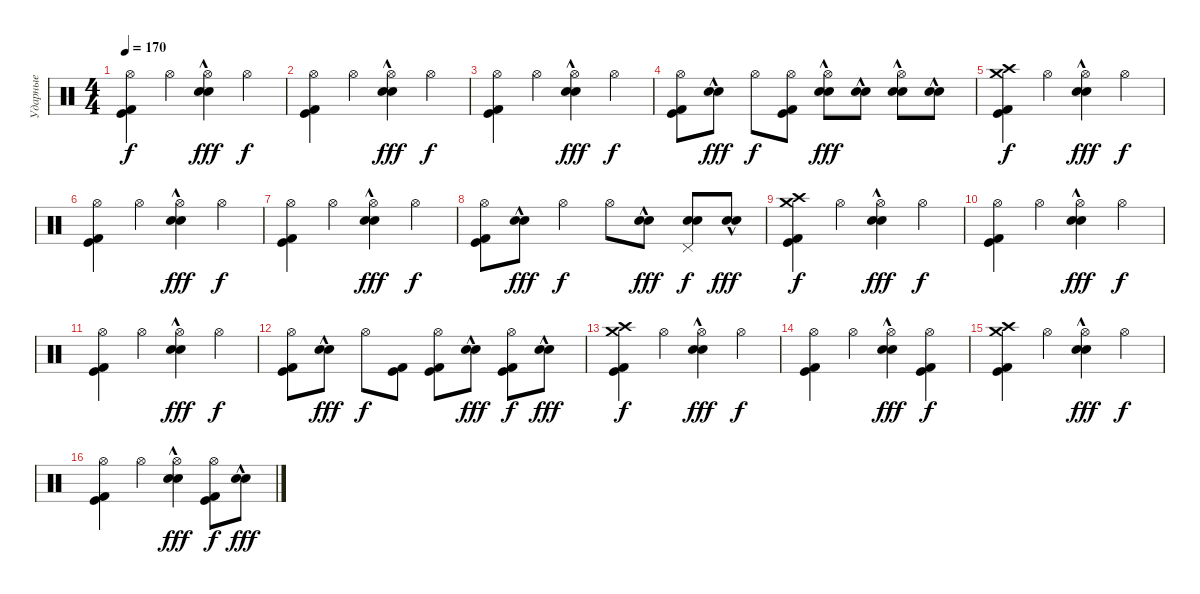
\track ("Ударные" "Ударные") {instrument percussion}
\staff {score}
\articulation defaults
\ts (4 4)
\tempo 170
\clef neutral
\ks c
("Hi-Hat (open)" "Kick (hit)" "Kick (hit) 2").4{dy f} "Hi-Hat (open)".4 ("Hi-Hat (open)" "Snare (hit) 2"{hac} "Electric Snare (hit)"{hac}).4{dy fff} "Hi-Hat (open)".4{dy f} |
("Hi-Hat (open)" "Kick (hit)" "Kick (hit) 2").4 "Hi-Hat (open)".4 ("Hi-Hat (open)" "Snare (hit) 2"{hac} "Electric Snare (hit)"{hac}).4{dy fff} "Hi-Hat (open)".4{dy f} |
("Hi-Hat (open)" "Kick (hit)" "Kick (hit) 2").4 "Hi-Hat (open)".4 ("Hi-Hat (open)" "Snare (hit) 2"{hac} "Electric Snare (hit)"{hac}).4{dy fff} "Hi-Hat (open)".4{dy f} |
("Hi-Hat (open)" "Kick (hit)" "Kick (hit) 2").8 ("Snare (hit) 2"{hac} "Electric Snare (hit)"{hac}).8{dy fff} "Hi-Hat (open)".8{dy f} ("Hi-Hat (open)" "Kick (hit)" "Kick (hit) 2").8 ("Hi-Hat (open)" "Snare (hit) 2"{hac} "Electric Snare (hit)"{hac}).8{dy fff} ("Snare (hit) 2"{hac} "Electric Snare (hit)"{hac}).8 ("Hi-Hat (open)" "Snare (hit) 2"{hac} "Electric Snare (hit)"{hac}).8 ("Snare (hit) 2"{hac} "Electric Snare (hit)"{hac}).8 |
("Crash high (hit)" "Kick (hit)" "Kick (hit) 2" "Crash medium (hit)").4{dy f} "Hi-Hat (open)".4 ("Hi-Hat (open)" "Snare (hit) 2"{hac} "Electric Snare (hit)"{hac}).4{dy fff} "Hi-Hat (open)".4{dy f} |
("Hi-Hat (open)" "Kick (hit)" "Kick (hit) 2").4 "Hi-Hat (open)".4 ("Hi-Hat (open)" "Snare (hit) 2"{hac} "Electric Snare (hit)"{hac}).4{dy fff} "Hi-Hat (open)".4{dy f} |
("Hi-Hat (open)" "Kick (hit)" "Kick (hit) 2").4 "Hi-Hat (open)".4 ("Hi-Hat (open)" "Snare (hit) 2"{hac} "Electric Snare (hit)"{hac}).4{dy fff} "Hi-Hat (open)".4{dy f} |
("Hi-Hat (open)" "Kick (hit)" "Kick (hit) 2").8 ("Snare (hit) 2"{hac} "Electric Snare (hit)"{hac}).8{dy fff} "Hi-Hat (open)".4{dy f} "Hi-Hat (open)".8 ("Snare (hit) 2"{hac} "Electric Snare (hit)"{hac}).8{dy fff} ("Pedal Hi-Hat (hit)" "Snare (hit) 2" "Electric Snare (hit)").8{dy f} ("Snare (hit) 2"{hac} "Electric Snare (hit)"{hac}).8{dy fff} |
("Crash high (hit)" "Kick (hit)" "Kick (hit) 2" "Crash medium (hit)").4{dy f} "Hi-Hat (open)".4 ("Hi-Hat (open)" "Snare (hit) 2"{hac} "Electric Snare (hit)"{hac}).4{dy fff} "Hi-Hat (open)".4{dy f} |
("Hi-Hat (open)" "Kick (hit)" "Kick (hit) 2").4 "Hi-Hat (open)".4 ("Hi-Hat (open)" "Snare (hit) 2"{hac} "Electric Snare (hit)"{hac}).4{dy fff} "Hi-Hat (open)".4{dy f} |
("Hi-Hat (open)" "Kick (hit)" "Kick (hit) 2").4 "Hi-Hat (open)".4 ("Hi-Hat (open)" "Snare (hit) 2"{hac} "Electric Snare (hit)"{hac}).4{dy fff} "Hi-Hat (open)".4{dy f} |
("Hi-Hat (open)" "Kick (hit)" "Kick (hit) 2").8 ("Snare (hit) 2"{hac} "Electric Snare (hit)"{hac}).8{dy fff} "Hi-Hat (open)".8{dy f} ("Kick (hit)" "Kick (hit) 2").8 ("Hi-Hat (open)" "Kick (hit)" "Kick (hit) 2").8 ("Snare (hit) 2"{hac} "Electric Snare (hit)"{hac}).8{dy fff} ("Hi-Hat (open)" "Kick (hit)" "Kick (hit) 2").8{dy f} ("Snare (hit) 2"{hac} "Electric Snare (hit)"{hac}).8{dy fff} |
("Crash high (hit)" "Kick (hit)" "Kick (hit) 2" "Crash medium (hit)").4{dy f} "Hi-Hat (open)".4 ("Hi-Hat (open)" "Snare (hit) 2"{hac} "Electric Snare (hit)"{hac}).4{dy fff} "Hi-Hat (open)".4{dy f} |
("Hi-Hat (open)" "Kick (hit)" "Kick (hit) 2").4 "Hi-Hat (open)".4 ("Hi-Hat (open)" "Snare (hit) 2"{hac} "Electric Snare (hit)"{hac}).4{dy fff} ("Hi-Hat (open)" "Kick (hit)" "Kick (hit) 2").4{dy f} |
("Crash high (hit)" "Kick (hit)" "Kick (hit) 2" "Crash medium (hit)").4 "Hi-Hat (open)".4 ("Hi-Hat (open)" "Snare (hit) 2"{hac} "Electric Snare (hit)"{hac}).4{dy fff} "Hi-Hat (open)".4{dy f} |
("Hi-Hat (open)" "Kick (hit)" "Kick (hit) 2").4 "Hi-Hat (open)".4 ("Hi-Hat (open)" "Snare (hit) 2"{hac} "Electric Snare (hit)"{hac}).4{dy fff} ("Hi-Hat (open)" "Kick (hit)" "Kick (hit) 2").8{dy f} ("Snare (hit) 2"{hac} "Electric Snare (hit)"{hac}).8{dy fff}
